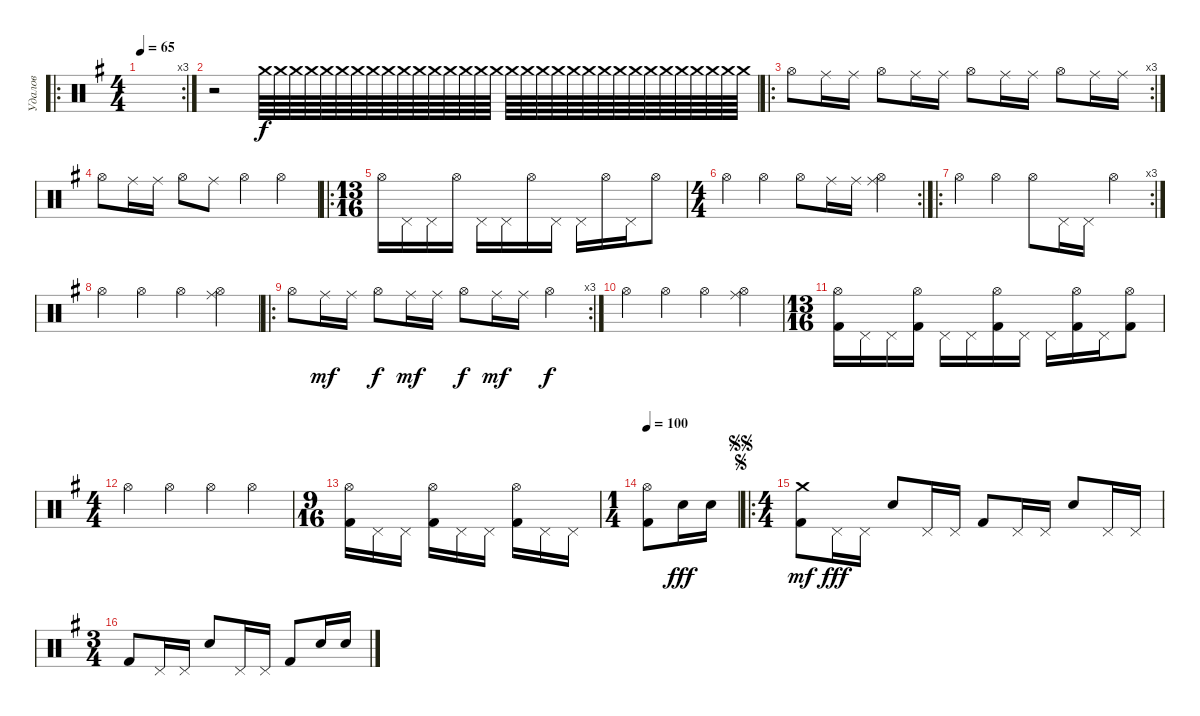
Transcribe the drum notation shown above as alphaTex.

\track ("Удалов" "Удалов") {instrument percussion}
\staff {score}
\articulation defaults
\ro
\rc 3
\ts (4 4)
\tempo 65
\clef neutral
\ks g
|
r.2 "Crash medium (hit)".64{volume 0} "Crash medium (hit)".64{volume 13} "Crash medium (hit)".64 "Crash medium (hit)".64 "Crash medium (hit)".64 "Crash medium (hit)".64 "Crash medium (hit)".64 "Crash medium (hit)".64 "Crash medium (hit)".64 "Crash medium (hit)".64 "Crash medium (hit)".64 "Crash medium (hit)".64 "Crash medium (hit)".64 "Crash medium (hit)".64 "Crash medium (hit)".64 "Crash medium (hit)".64 "Crash medium (hit)".64 "Crash medium (hit)".64 "Crash medium (hit)".64 "Crash medium (hit)".64 "Crash medium (hit)".64 "Crash medium (hit)".64 "Crash medium (hit)".64 "Crash medium (hit)".64 "Crash medium (hit)".64 "Crash medium (hit)".64 "Crash medium (hit)".64 "Crash medium (hit)".64 "Crash medium (hit)".64 "Crash medium (hit)".64 "Crash medium (hit)".64 "Crash medium (hit)".64 |
\ro
\rc 3 "Hi-Hat (open)".8{volume 9} "Ride (middle)".16 "Ride (middle)".16 "Hi-Hat (open)".8 "Ride (middle)".16 "Ride (middle)".16 "Hi-Hat (open)".8 "Ride (middle)".16 "Ride (middle)".16 "Hi-Hat (open)".8 "Ride (middle)".16 "Ride (middle)".16
|
"Hi-Hat (open)".8 "Ride (middle)".16 "Ride (middle)".16 "Hi-Hat (open)".8 "Ride (middle)".8 "Hi-Hat (open)".4 "Hi-Hat (open)".4 |
\ro
\ts (13 16)
"Hi-Hat (open)".16 "Pedal Hi-Hat (hit)".16 "Pedal Hi-Hat (hit)".16 "Hi-Hat (open)".16 "Pedal Hi-Hat (hit)".16 "Pedal Hi-Hat (hit)".16 "Hi-Hat (open)".16 "Pedal Hi-Hat (hit)".16 "Pedal Hi-Hat (hit)".16 "Hi-Hat (open)".16 "Pedal Hi-Hat (hit)".16 "Hi-Hat (open)".8 |
\rc 2
\ts (4 4)
"Hi-Hat (open)".4 "Hi-Hat (open)".4 "Hi-Hat (open)".8 "Ride (middle)".16 "Ride (middle)".16 ("Ride (middle)" "Hi-Hat (open)").4 |
\ro
\rc 3 "Hi-Hat (open)".4 "Hi-Hat (open)".4 "Hi-Hat (open)".8 "Pedal Hi-Hat (hit)".16 "Pedal Hi-Hat (hit)".16 "Hi-Hat (open)".4
|
"Hi-Hat (open)".4 "Hi-Hat (open)".4 "Hi-Hat (open)".4 ("Ride (middle)" "Hi-Hat (open)").4 |
\ro
\rc 3 "Hi-Hat (open)".8 "Ride (middle)".16{dy mf} "Ride (middle)".16 "Hi-Hat (open)".8{dy f} "Ride (middle)".16{dy mf} "Ride (middle)".16 "Hi-Hat (open)".8{dy f} "Ride (middle)".16{dy mf} "Ride (middle)".16 "Hi-Hat (open)".4{dy f}
|
"Hi-Hat (open)".4 "Hi-Hat (open)".4 "Hi-Hat (open)".4 ("Ride (middle)" "Hi-Hat (open)").4 |
\ts (13 16)
("Kick (hit) 2" "Hi-Hat (open)").16 "Pedal Hi-Hat (hit)".16 "Pedal Hi-Hat (hit)".16 ("Kick (hit) 2" "Hi-Hat (open)").16 "Pedal Hi-Hat (hit)".16 "Pedal Hi-Hat (hit)".16 ("Kick (hit) 2" "Hi-Hat (open)").16 "Pedal Hi-Hat (hit)".16 "Pedal Hi-Hat (hit)".16 ("Kick (hit) 2" "Hi-Hat (open)").16 "Pedal Hi-Hat (hit)".16 ("Kick (hit) 2" "Hi-Hat (open)").8 |
\ts (4 4)
"Hi-Hat (open)".4 "Hi-Hat (open)".4 "Hi-Hat (open)".4 "Hi-Hat (open)".4 |
\ts (9 16)
("Kick (hit) 2" "Hi-Hat (open)").16 "Pedal Hi-Hat (hit)".16 "Pedal Hi-Hat (hit)".16 ("Kick (hit) 2" "Hi-Hat (open)").16 "Pedal Hi-Hat (hit)".16 "Pedal Hi-Hat (hit)".16 ("Kick (hit) 2" "Hi-Hat (open)").16 "Pedal Hi-Hat (hit)".16 "Pedal Hi-Hat (hit)".16 |
\ts (1 4)
\tempo 100
("Kick (hit) 2" "Hi-Hat (open)").8 "Electric Snare (hit)".16{dy fff} "Electric Snare (hit)".16 |
\ro
\ts (4 4)
\jump segno
\jump segnosegno
("Kick (hit) 2" "Crash medium (hit)").8{dy mf} "Pedal Hi-Hat (hit)".16{dy fff} "Pedal Hi-Hat (hit)".16 "Electric Snare (hit)".8 "Pedal Hi-Hat (hit)".16 "Pedal Hi-Hat (hit)".16 "Kick (hit) 2".8 "Pedal Hi-Hat (hit)".16 "Pedal Hi-Hat (hit)".16 "Electric Snare (hit)".8 "Pedal Hi-Hat (hit)".16 "Pedal Hi-Hat (hit)".16 |
\ts (3 4)
"Kick (hit) 2".8 "Pedal Hi-Hat (hit)".16 "Pedal Hi-Hat (hit)".16 "Electric Snare (hit)".8 "Pedal Hi-Hat (hit)".16 "Pedal Hi-Hat (hit)".16 "Kick (hit) 2".8 "Electric Snare (hit)".16 "Electric Snare (hit)".16
